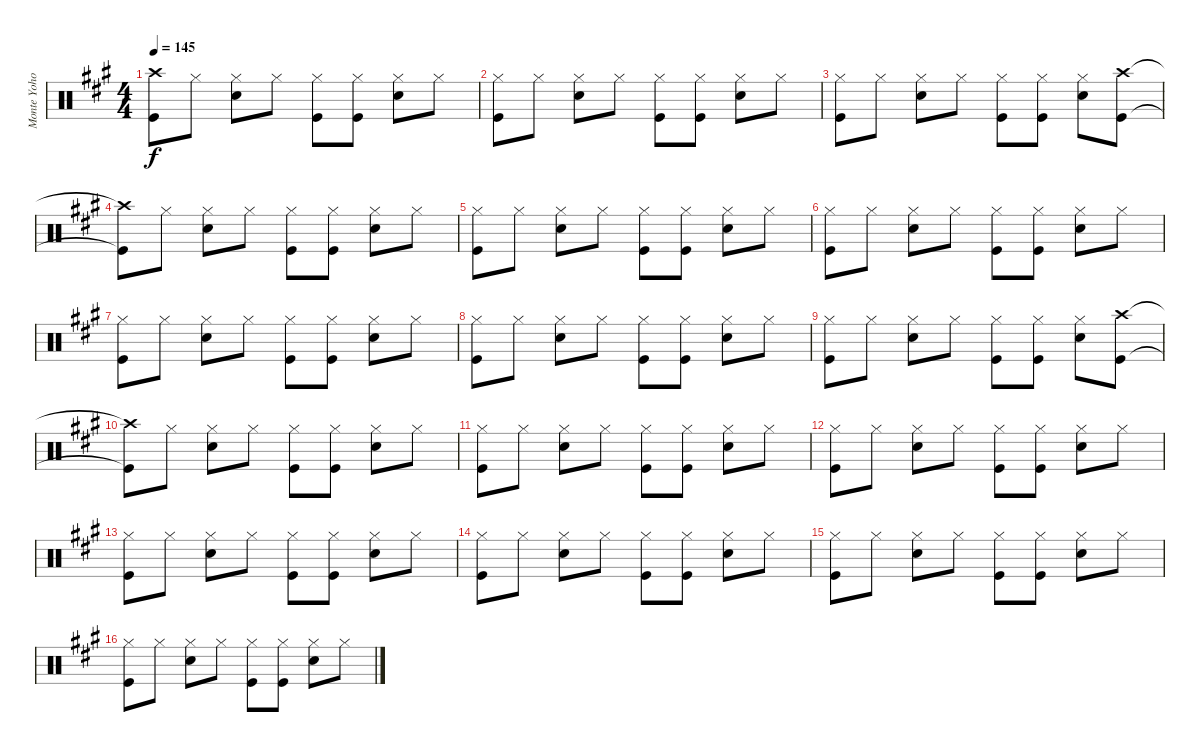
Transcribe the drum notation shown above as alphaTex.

\track ("Monte Yoho Drums" "Monte Yoho") {instrument percussion}
\staff {score}
\articulation defaults
\ts (4 4)
\tempo 145
\clef neutral
\ks a
("Crash high (hit)" "Kick (hit)").8{dy f} "Hi-Hat (closed)".8 ("Hi-Hat (closed)" "Snare (hit) 2").8 "Hi-Hat (closed)".8 ("Hi-Hat (closed)" "Kick (hit)").8 ("Hi-Hat (closed)" "Kick (hit)").8 ("Hi-Hat (closed)" "Snare (hit) 2").8 "Hi-Hat (closed)".8 |
("Hi-Hat (closed)" "Kick (hit)").8 "Hi-Hat (closed)".8 ("Hi-Hat (closed)" "Snare (hit) 2").8 "Hi-Hat (closed)".8 ("Hi-Hat (closed)" "Kick (hit)").8 ("Hi-Hat (closed)" "Kick (hit)").8 ("Hi-Hat (closed)" "Snare (hit) 2").8 "Hi-Hat (closed)".8 |
("Hi-Hat (closed)" "Kick (hit)").8 "Hi-Hat (closed)".8 ("Hi-Hat (closed)" "Snare (hit) 2").8 "Hi-Hat (closed)".8 ("Hi-Hat (closed)" "Kick (hit)").8 ("Hi-Hat (closed)" "Kick (hit)").8 ("Hi-Hat (closed)" "Snare (hit) 2").8 ("Crash high (hit)" "Kick (hit)").8 |
("Crash high (hit)"{t} "Kick (hit)"{t}).8 "Hi-Hat (closed)".8 ("Hi-Hat (closed)" "Snare (hit) 2").8 "Hi-Hat (closed)".8 ("Hi-Hat (closed)" "Kick (hit)").8 ("Hi-Hat (closed)" "Kick (hit)").8 ("Hi-Hat (closed)" "Snare (hit) 2").8 "Hi-Hat (closed)".8 |
("Hi-Hat (closed)" "Kick (hit)").8 "Hi-Hat (closed)".8 ("Hi-Hat (closed)" "Snare (hit) 2").8 "Hi-Hat (closed)".8 ("Hi-Hat (closed)" "Kick (hit)").8 ("Hi-Hat (closed)" "Kick (hit)").8 ("Hi-Hat (closed)" "Snare (hit) 2").8 "Hi-Hat (closed)".8 |
("Hi-Hat (closed)" "Kick (hit)").8 "Hi-Hat (closed)".8 ("Hi-Hat (closed)" "Snare (hit) 2").8 "Hi-Hat (closed)".8 ("Hi-Hat (closed)" "Kick (hit)").8 ("Hi-Hat (closed)" "Kick (hit)").8 ("Hi-Hat (closed)" "Snare (hit) 2").8 "Hi-Hat (closed)".8 |
("Hi-Hat (closed)" "Kick (hit)").8 "Hi-Hat (closed)".8 ("Hi-Hat (closed)" "Snare (hit) 2").8 "Hi-Hat (closed)".8 ("Hi-Hat (closed)" "Kick (hit)").8 ("Hi-Hat (closed)" "Kick (hit)").8 ("Hi-Hat (closed)" "Snare (hit) 2").8 "Hi-Hat (closed)".8 |
("Hi-Hat (closed)" "Kick (hit)").8 "Hi-Hat (closed)".8 ("Hi-Hat (closed)" "Snare (hit) 2").8 "Hi-Hat (closed)".8 ("Hi-Hat (closed)" "Kick (hit)").8 ("Hi-Hat (closed)" "Kick (hit)").8 ("Hi-Hat (closed)" "Snare (hit) 2").8 "Hi-Hat (closed)".8 |
("Hi-Hat (closed)" "Kick (hit)").8 "Hi-Hat (closed)".8 ("Hi-Hat (closed)" "Snare (hit) 2").8 "Hi-Hat (closed)".8 ("Hi-Hat (closed)" "Kick (hit)").8 ("Hi-Hat (closed)" "Kick (hit)").8 ("Hi-Hat (closed)" "Snare (hit) 2").8 ("Crash high (hit)" "Kick (hit)").8 |
("Crash high (hit)"{t} "Kick (hit)"{t}).8 "Hi-Hat (closed)".8 ("Hi-Hat (closed)" "Snare (hit) 2").8 "Hi-Hat (closed)".8 ("Hi-Hat (closed)" "Kick (hit)").8 ("Hi-Hat (closed)" "Kick (hit)").8 ("Hi-Hat (closed)" "Snare (hit) 2").8 "Hi-Hat (closed)".8 |
("Hi-Hat (closed)" "Kick (hit)").8 "Hi-Hat (closed)".8 ("Hi-Hat (closed)" "Snare (hit) 2").8 "Hi-Hat (closed)".8 ("Hi-Hat (closed)" "Kick (hit)").8 ("Hi-Hat (closed)" "Kick (hit)").8 ("Hi-Hat (closed)" "Snare (hit) 2").8 "Hi-Hat (closed)".8 |
("Hi-Hat (closed)" "Kick (hit)").8 "Hi-Hat (closed)".8 ("Hi-Hat (closed)" "Snare (hit) 2").8 "Hi-Hat (closed)".8 ("Hi-Hat (closed)" "Kick (hit)").8 ("Hi-Hat (closed)" "Kick (hit)").8 ("Hi-Hat (closed)" "Snare (hit) 2").8 "Hi-Hat (closed)".8 |
("Hi-Hat (closed)" "Kick (hit)").8 "Hi-Hat (closed)".8 ("Hi-Hat (closed)" "Snare (hit) 2").8 "Hi-Hat (closed)".8 ("Hi-Hat (closed)" "Kick (hit)").8 ("Hi-Hat (closed)" "Kick (hit)").8 ("Hi-Hat (closed)" "Snare (hit) 2").8 "Hi-Hat (closed)".8 |
("Hi-Hat (closed)" "Kick (hit)").8 "Hi-Hat (closed)".8 ("Hi-Hat (closed)" "Snare (hit) 2").8 "Hi-Hat (closed)".8 ("Hi-Hat (closed)" "Kick (hit)").8 ("Hi-Hat (closed)" "Kick (hit)").8 ("Hi-Hat (closed)" "Snare (hit) 2").8 "Hi-Hat (closed)".8 |
("Hi-Hat (closed)" "Kick (hit)").8 "Hi-Hat (closed)".8 ("Hi-Hat (closed)" "Snare (hit) 2").8 "Hi-Hat (closed)".8 ("Hi-Hat (closed)" "Kick (hit)").8 ("Hi-Hat (closed)" "Kick (hit)").8 ("Hi-Hat (closed)" "Snare (hit) 2").8 "Hi-Hat (closed)".8 |
("Hi-Hat (closed)" "Kick (hit)").8 "Hi-Hat (closed)".8 ("Hi-Hat (closed)" "Snare (hit) 2").8 "Hi-Hat (closed)".8 ("Hi-Hat (closed)" "Kick (hit)").8 ("Hi-Hat (closed)" "Kick (hit)").8 ("Hi-Hat (closed)" "Snare (hit) 2").8 "Hi-Hat (closed)".8
